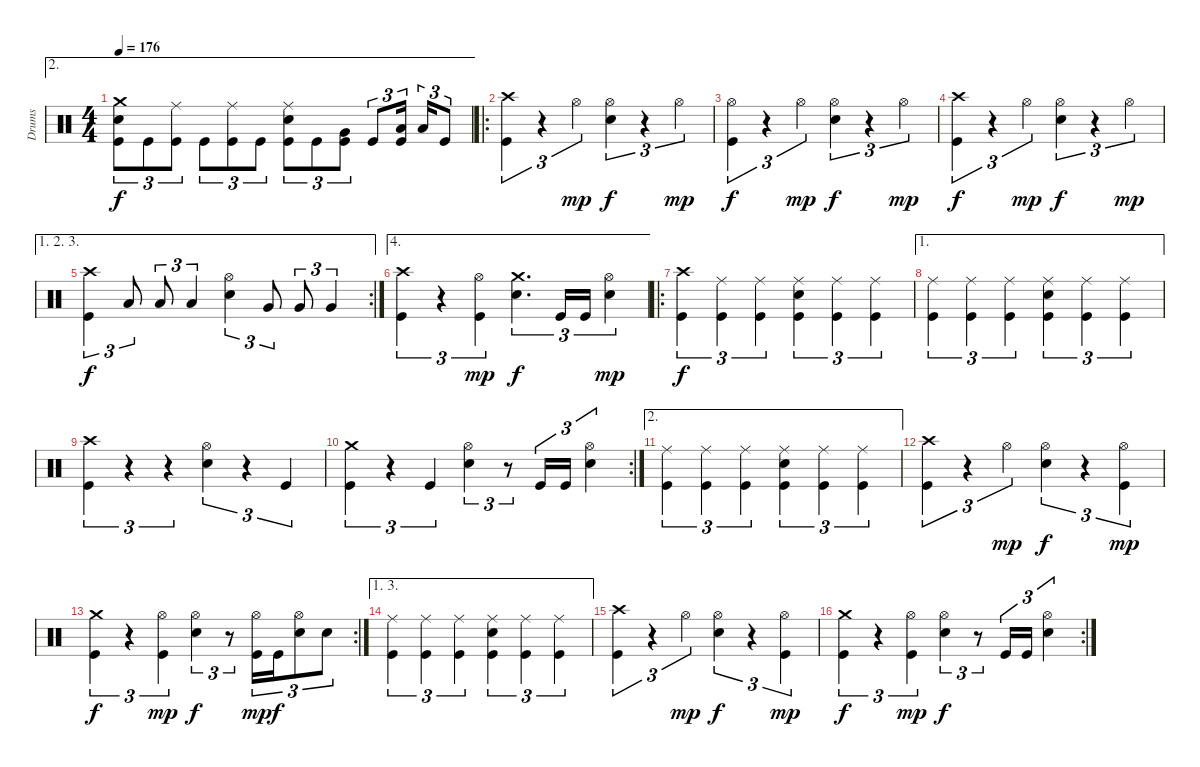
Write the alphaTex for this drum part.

\track ("Drums" "Drums") {instrument percussion}
\staff {score}
\articulation defaults
\ae 2
\ts (4 4)
\tempo 176
\clef neutral
\ks c
("Crash medium (hit)" "Electric Snare (hit)" "Kick (hit)").8{tu (3 2) dy f} "Kick (hit)".8{tu (3 2)} ("Ride (middle)" "Kick (hit)").8{tu (3 2)} "Kick (hit)".8{tu (3 2)} ("Ride (middle)" "Kick (hit)").8{tu (3 2)} "Kick (hit)".8{tu (3 2)} ("Ride (middle)" "Electric Snare (hit)" "Kick (hit)").8{tu (3 2)} "Kick (hit)".8{tu (3 2)} ("Very Low Tom (hit)" "Kick (hit)").8{tu (3 2)} "Kick (hit)".8{tu (3 2)} ("Low Floor Tom (hit)" "Kick (hit)").16{tu (3 2)} "Low Floor Tom (hit)".16{tu (3 2)} "Kick (hit)".8{tu (3 2)} |
\ro
("Crash high (hit)" "Kick (hit)").4{tu (3 2)} r.4{tu (3 2)} "Hi-Hat (open)".4{tu (3 2) dy mp} ("Hi-Hat (open)" "Electric Snare (hit)").4{tu (3 2) dy f} r.4{tu (3 2)} "Hi-Hat (open)".4{tu (3 2) dy mp} |
("Hi-Hat (open)" "Kick (hit)").4{tu (3 2) dy f} r.4{tu (3 2)} "Hi-Hat (open)".4{tu (3 2) dy mp} ("Hi-Hat (open)" "Electric Snare (hit)").4{tu (3 2) dy f} r.4{tu (3 2)} "Hi-Hat (open)".4{tu (3 2) dy mp} |
("Crash high (hit)" "Kick (hit)").4{tu (3 2) dy f} r.4{tu (3 2)} "Hi-Hat (open)".4{tu (3 2) dy mp} ("Hi-Hat (open)" "Electric Snare (hit)").4{tu (3 2) dy f} r.4{tu (3 2)} "Hi-Hat (open)".4{tu (3 2) dy mp} |
\ae (1 2 3)
\rc 2
("Crash high (hit)" "Kick (hit)").4{tu (3 2) dy f} "Low Tom (hit)".8{tu (3 2)} "Low Tom (hit)".8{tu (3 2)} "Low Tom (hit)".4{tu (3 2)} ("Hi-Hat (open)" "Electric Snare (hit)").4{tu (3 2)} "Very Low Tom (hit)".8{tu (3 2)} "Very Low Tom (hit)".8{tu (3 2)} "Very Low Tom (hit)".4{tu (3 2)} |
\ae 4
("Crash high (hit)" "Kick (hit)").4{tu (3 2)} r.4{tu (3 2)} ("Hi-Hat (open)" "Kick (hit)").4{tu (3 2) dy mp} ("Crash medium (hit)" "Electric Snare (hit)").4{d tu (3 2) dy f} "Kick (hit)".16{tu (3 2)} "Kick (hit)".16{tu (3 2)} ("Hi-Hat (open)" "Electric Snare (hit)").4{tu (3 2) dy mp} |
\ro
("Crash high (hit)" "Kick (hit)").4{tu (3 2) dy f} ("Ride (middle)" "Kick (hit)").4{tu (3 2)} ("Ride (middle)" "Kick (hit)").4{tu (3 2)} ("Ride (middle)" "Electric Snare (hit)" "Kick (hit)").4{tu (3 2)} ("Ride (middle)" "Kick (hit)").4{tu (3 2)} ("Ride (middle)" "Kick (hit)").4{tu (3 2)} |
\ae 1
("Ride (middle)" "Kick (hit)").4{tu (3 2)} ("Ride (middle)" "Kick (hit)").4{tu (3 2)} ("Ride (middle)" "Kick (hit)").4{tu (3 2)} ("Ride (middle)" "Electric Snare (hit)" "Kick (hit)").4{tu (3 2)} ("Ride (middle)" "Kick (hit)").4{tu (3 2)} ("Ride (middle)" "Kick (hit)").4{tu (3 2)} |
("Crash high (hit)" "Kick (hit)").4{tu (3 2)} r.4{tu (3 2)} r.4{tu (3 2)} ("Hi-Hat (open)" "Electric Snare (hit)").4{tu (3 2)} r.4{tu (3 2)} "Kick (hit)".4{tu (3 2)} |
\rc 2
("Crash medium (hit)" "Kick (hit)").4{tu (3 2)} r.4{tu (3 2)} "Kick (hit)".4{tu (3 2)} ("Hi-Hat (open)" "Electric Snare (hit)").4{tu (3 2)} r.8{tu (3 2)} "Kick (hit)".16{tu (3 2)} "Kick (hit)".16{tu (3 2)} ("Hi-Hat (open)" "Electric Snare (hit)").4{tu (3 2)} |
\ae 2
("Ride (middle)" "Kick (hit)").4{tu (3 2)} ("Ride (middle)" "Kick (hit)").4{tu (3 2)} ("Ride (middle)" "Kick (hit)").4{tu (3 2)} ("Ride (middle)" "Electric Snare (hit)" "Kick (hit)").4{tu (3 2)} ("Ride (middle)" "Kick (hit)").4{tu (3 2)} ("Ride (middle)" "Kick (hit)").4{tu (3 2)} |
("Crash high (hit)" "Kick (hit)").4{tu (3 2)} r.4{tu (3 2)} "Hi-Hat (open)".4{tu (3 2) dy mp} ("Hi-Hat (open)" "Electric Snare (hit)").4{tu (3 2) dy f} r.4{tu (3 2)} ("Hi-Hat (open)" "Kick (hit)").4{tu (3 2) dy mp} |
\rc 2
("Crash medium (hit)" "Kick (hit)").4{tu (3 2) dy f} r.4{tu (3 2)} ("Hi-Hat (open)" "Kick (hit)").4{tu (3 2) dy mp} ("Hi-Hat (open)" "Electric Snare (hit)").4{tu (3 2) dy f} r.8{tu (3 2)} ("Hi-Hat (open)" "Kick (hit)").16{tu (3 2) dy mp} "Kick (hit)".16{tu (3 2) dy f} ("Hi-Hat (open)" "Electric Snare (hit)").8{tu (3 2)} "Electric Snare (hit)".8{tu (3 2)} |
\ae (1 3)
("Ride (middle)" "Kick (hit)").4{tu (3 2)} ("Ride (middle)" "Kick (hit)").4{tu (3 2)} ("Ride (middle)" "Kick (hit)").4{tu (3 2)} ("Ride (middle)" "Electric Snare (hit)" "Kick (hit)").4{tu (3 2)} ("Ride (middle)" "Kick (hit)").4{tu (3 2)} ("Ride (middle)" "Kick (hit)").4{tu (3 2)} |
("Crash high (hit)" "Kick (hit)").4{tu (3 2)} r.4{tu (3 2)} "Hi-Hat (open)".4{tu (3 2) dy mp} ("Hi-Hat (open)" "Electric Snare (hit)").4{tu (3 2) dy f} r.4{tu (3 2)} ("Hi-Hat (open)" "Kick (hit)").4{tu (3 2) dy mp} |
\rc 2
("Crash medium (hit)" "Kick (hit)").4{tu (3 2) dy f} r.4{tu (3 2)} ("Hi-Hat (open)" "Kick (hit)").4{tu (3 2) dy mp} ("Hi-Hat (open)" "Electric Snare (hit)").4{tu (3 2) dy f} r.8{tu (3 2)} "Kick (hit)".16{tu (3 2)} "Kick (hit)".16{tu (3 2)} ("Hi-Hat (open)" "Electric Snare (hit)").4{tu (3 2)}
